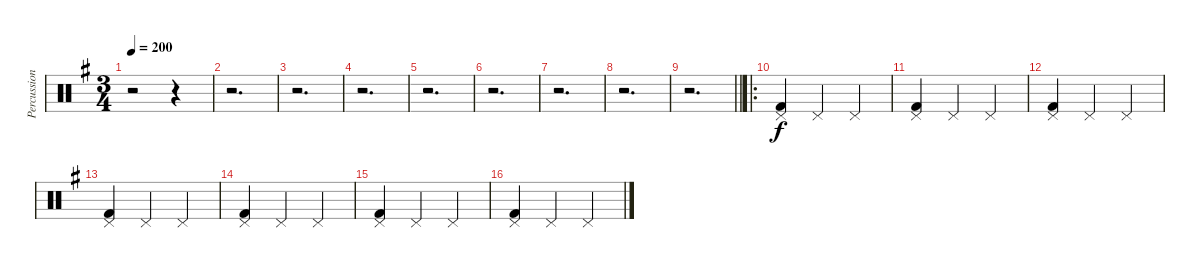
\track ("Percussions" "Percussion") {instrument percussion}
\staff {score}
\articulation defaults
\ts (3 4)
\tempo 200
\clef neutral
\ks g
r.2{dy f} r.4 |
r.2{d} |
r.2{d} |
r.2{d} |
r.2{d} |
r.2{d} |
r.2{d} |
r.2{d} |
\barLineRight lightlight
r.2{d} |
\ro
("Pedal Hi-Hat (hit)" "Kick (hit) 2").4 "Pedal Hi-Hat (hit)".4 "Pedal Hi-Hat (hit)".4 |
("Pedal Hi-Hat (hit)" "Kick (hit) 2").4 "Pedal Hi-Hat (hit)".4 "Pedal Hi-Hat (hit)".4 |
("Pedal Hi-Hat (hit)" "Kick (hit) 2").4 "Pedal Hi-Hat (hit)".4 "Pedal Hi-Hat (hit)".4 |
("Pedal Hi-Hat (hit)" "Kick (hit) 2").4 "Pedal Hi-Hat (hit)".4 "Pedal Hi-Hat (hit)".4 |
("Pedal Hi-Hat (hit)" "Kick (hit) 2").4 "Pedal Hi-Hat (hit)".4 "Pedal Hi-Hat (hit)".4 |
("Pedal Hi-Hat (hit)" "Kick (hit) 2").4 "Pedal Hi-Hat (hit)".4 "Pedal Hi-Hat (hit)".4 |
("Pedal Hi-Hat (hit)" "Kick (hit) 2").4 "Pedal Hi-Hat (hit)".4 "Pedal Hi-Hat (hit)".4
